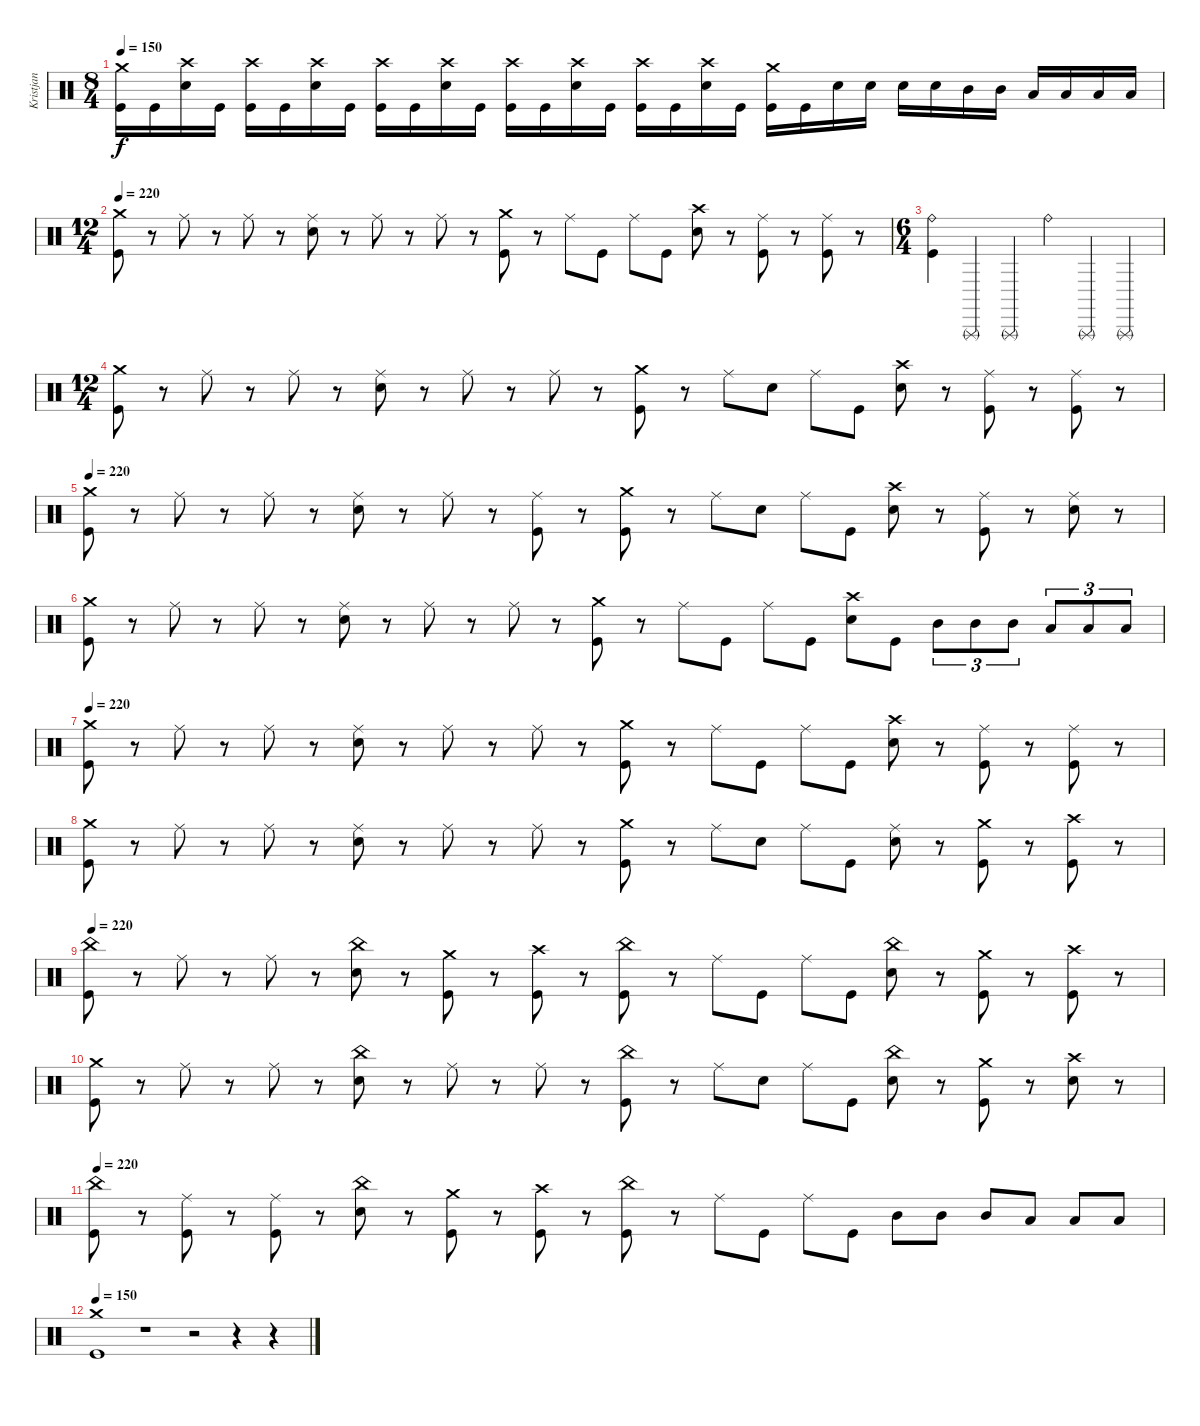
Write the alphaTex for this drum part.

\track ("Kristjan" "Kristjan") {instrument percussion}
\staff {score}
\articulation defaults
\ts (8 4)
\tempo 150
\clef neutral
\ks c
("Crash medium (hit)" "Kick (hit)").16{dy f} "Kick (hit)".16 ("Crash high (hit)" "Electric Snare (hit)").16 "Kick (hit)".16 ("Crash high (hit)" "Kick (hit)").16 "Kick (hit)".16 ("Crash high (hit)" "Electric Snare (hit)").16 "Kick (hit)".16 ("Crash high (hit)" "Kick (hit)").16 "Kick (hit)".16 ("Crash high (hit)" "Electric Snare (hit)").16 "Kick (hit)".16 ("Crash high (hit)" "Kick (hit)").16 "Kick (hit)".16 ("Crash high (hit)" "Electric Snare (hit)").16 "Kick (hit)".16 ("Crash high (hit)" "Kick (hit)").16 "Kick (hit)".16 ("Crash high (hit)" "Electric Snare (hit)").16 "Kick (hit)".16 ("Crash medium (hit)" "Kick (hit)").16 "Kick (hit)".16 "Electric Snare (hit)".16 "Electric Snare (hit)".16 "Electric Snare (hit)".16 "Electric Snare (hit)".16 "Mid Tom (hit)".16 "Mid Tom (hit)".16 "Low Tom (hit)".16 "Low Tom (hit)".16 "Low Floor Tom (hit)".16 "Low Floor Tom (hit)".16 |
\ts (12 4)
\tempo 220
("Crash medium (hit)" "Kick (hit)").8 r.8 "Ride (middle)".8 r.8 "Ride (middle)".8 r.8 ("Ride (middle)" "Electric Snare (hit)").8 r.8 "Ride (middle)".8 r.8 "Ride (middle)".8 r.8 ("Crash medium (hit)" "Kick (hit)").8 r.8 "Ride (middle)".8 "Kick (hit)".8 "Ride (middle)".8 "Kick (hit)".8 ("Crash high (hit)" "Electric Snare (hit)").8 r.8 ("Ride (middle)" "Kick (hit)").8 r.8 ("Ride (middle)" "Kick (hit)").8 r.8 |
\ts (6 4)
("Ride (bell)" "Kick (hit)").4 "Triangle (rnute)".4 "Triangle (rnute)".4 "Ride (bell)".4 "Triangle (rnute)".4 "Triangle (rnute)".4 |
\ts (12 4)
("Crash medium (hit)" "Kick (hit)").8 r.8 "Ride (middle)".8 r.8 "Ride (middle)".8 r.8 ("Ride (middle)" "Electric Snare (hit)").8 r.8 "Ride (middle)".8 r.8 "Ride (middle)".8 r.8 ("Crash medium (hit)" "Kick (hit)").8 r.8 "Ride (middle)".8 "Electric Snare (hit)".8 "Ride (middle)".8 "Kick (hit)".8 ("Crash high (hit)" "Electric Snare (hit)").8 r.8 ("Ride (middle)" "Kick (hit)").8 r.8 ("Ride (middle)" "Kick (hit)").8 r.8 |
\tempo 220
("Crash medium (hit)" "Kick (hit)").8 r.8 "Ride (middle)".8 r.8 "Ride (middle)".8 r.8 ("Ride (middle)" "Electric Snare (hit)").8 r.8 "Ride (middle)".8 r.8 ("Ride (middle)" "Kick (hit)").8 r.8 ("Crash medium (hit)" "Kick (hit)").8 r.8 "Ride (middle)".8 "Electric Snare (hit)".8 "Ride (middle)".8 "Kick (hit)".8 ("Crash high (hit)" "Electric Snare (hit)").8 r.8 ("Ride (middle)" "Kick (hit)").8 r.8 ("Ride (middle)" "Electric Snare (hit)").8 r.8 |
("Crash medium (hit)" "Kick (hit)").8 r.8 "Ride (middle)".8 r.8 "Ride (middle)".8 r.8 ("Ride (middle)" "Electric Snare (hit)").8 r.8 "Ride (middle)".8 r.8 "Ride (middle)".8 r.8 ("Crash medium (hit)" "Kick (hit)").8 r.8 "Ride (middle)".8 "Kick (hit)".8 "Ride (middle)".8 "Kick (hit)".8 ("Crash high (hit)" "Electric Snare (hit)").8 "Kick (hit)".8 "Mid Tom (hit)".8{tu (3 2)} "Mid Tom (hit)".8{tu (3 2)} "Mid Tom (hit)".8{tu (3 2)} "Low Floor Tom (hit)".8{tu (3 2)} "Low Floor Tom (hit)".8{tu (3 2)} "Low Floor Tom (hit)".8{tu (3 2)} |
\tempo 220
("Crash medium (hit)" "Kick (hit)").8 r.8 "Ride (middle)".8 r.8 "Ride (middle)".8 r.8 ("Ride (middle)" "Electric Snare (hit)").8 r.8 "Ride (middle)".8 r.8 "Ride (middle)".8 r.8 ("Crash medium (hit)" "Kick (hit)").8 r.8 "Ride (middle)".8 "Kick (hit)".8 "Ride (middle)".8 "Kick (hit)".8 ("Crash high (hit)" "Electric Snare (hit)").8 r.8 ("Ride (middle)" "Kick (hit)").8 r.8 ("Ride (middle)" "Kick (hit)").8 r.8 |
("Crash medium (hit)" "Kick (hit)").8 r.8 "Ride (middle)".8 r.8 "Ride (middle)".8 r.8 ("Ride (middle)" "Electric Snare (hit)").8 r.8 "Ride (middle)".8 r.8 "Ride (middle)".8 r.8 ("Crash medium (hit)" "Kick (hit)").8 r.8 "Ride (middle)".8 "Electric Snare (hit)".8 "Ride (middle)".8 "Kick (hit)".8 ("Ride (middle)" "Electric Snare (hit)").8 r.8 ("Crash medium (hit)" "Kick (hit)").8 r.8 ("Crash high (hit)" "Kick (hit)").8 r.8 |
\tempo 220
("China (hit)" "Kick (hit)").8 r.8 "Ride (middle)".8 r.8 "Ride (middle)".8 r.8 ("China (hit)" "Electric Snare (hit)").8 r.8 ("Crash medium (hit)" "Kick (hit)").8 r.8 ("Crash high (hit)" "Kick (hit)").8 r.8 ("China (hit)" "Kick (hit)").8 r.8 "Ride (middle)".8 "Kick (hit)".8 "Ride (middle)".8 "Kick (hit)".8 ("China (hit)" "Electric Snare (hit)").8 r.8 ("Crash medium (hit)" "Kick (hit)").8 r.8 ("Crash high (hit)" "Kick (hit)").8 r.8 |
("Crash medium (hit)" "Kick (hit)").8 r.8 "Ride (middle)".8 r.8 "Ride (middle)".8 r.8 ("China (hit)" "Electric Snare (hit)").8 r.8 "Ride (middle)".8 r.8 "Ride (middle)".8 r.8 ("China (hit)" "Kick (hit)").8 r.8 "Ride (middle)".8 "Electric Snare (hit)".8 "Ride (middle)".8 "Kick (hit)".8 ("China (hit)" "Electric Snare (hit)").8 r.8 ("Crash medium (hit)" "Kick (hit)").8 r.8 ("Crash high (hit)" "Electric Snare (hit)").8 r.8 |
\tempo 220
("China (hit)" "Kick (hit)").8 r.8 ("Ride (middle)" "Kick (hit)").8 r.8 ("Ride (middle)" "Kick (hit)").8 r.8 ("China (hit)" "Electric Snare (hit)").8 r.8 ("Crash medium (hit)" "Kick (hit)").8 r.8 ("Crash high (hit)" "Kick (hit)").8 r.8 ("China (hit)" "Kick (hit)").8 r.8 "Ride (middle)".8 "Kick (hit)".8 "Ride (middle)".8 "Kick (hit)".8 "Mid Tom (hit)".8 "Mid Tom (hit)".8 "Mid Tom (hit)".8 "Low Floor Tom (hit)".8 "Low Floor Tom (hit)".8 "Low Floor Tom (hit)".8 |
\tempo 150
("Crash medium (hit)" "Kick (hit)").1 r.1 r.2 r.4 r.4
